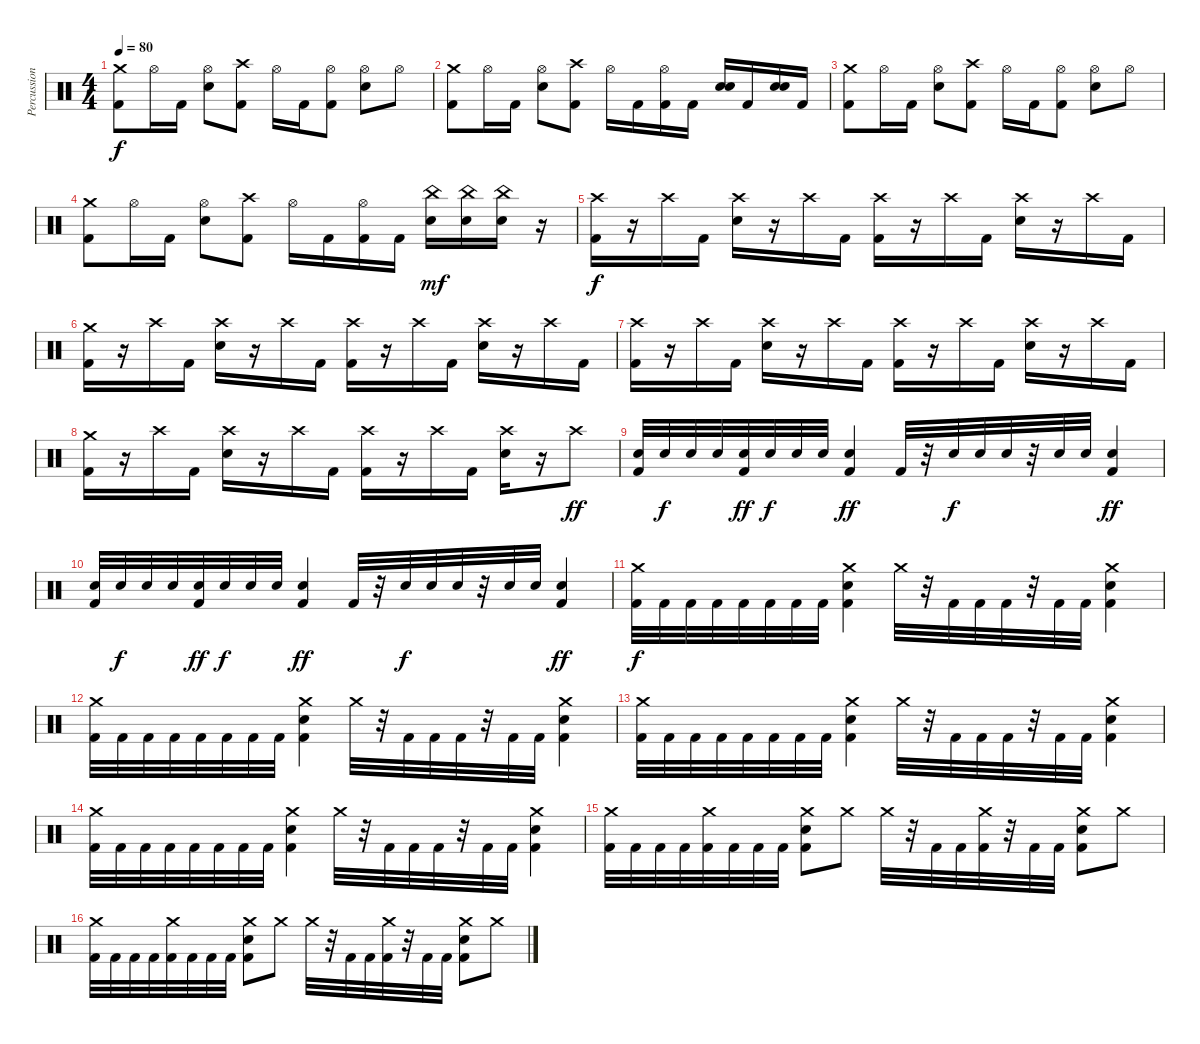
\track ("Percussion" "Percussion") {instrument percussion}
\staff {score}
\articulation defaults
\ts (4 4)
\tempo 80
\clef neutral
\ks c
("Crash medium (hit)" "Kick (hit) 2").8{dy f} "Hi-Hat (open)".16 "Kick (hit) 2".16 ("Hi-Hat (open)" "Electric Snare (hit)").8 ("Crash high (hit)" "Kick (hit) 2").8 "Hi-Hat (open)".16 "Kick (hit) 2".16 ("Hi-Hat (open)" "Kick (hit) 2").8 ("Hi-Hat (open)" "Electric Snare (hit)").8 "Hi-Hat (open)".8 |
("Crash medium (hit)" "Kick (hit) 2").8 "Hi-Hat (open)".16 "Kick (hit) 2".16 ("Hi-Hat (open)" "Electric Snare (hit)").8 ("Crash high (hit)" "Kick (hit) 2").8 "Hi-Hat (open)".16 "Kick (hit) 2".16 ("Hi-Hat (open)" "Kick (hit) 2").16 "Kick (hit) 2".16 ("Electric Snare (hit)" "Electric Snare (hit)").16 "Kick (hit) 2".16 ("Electric Snare (hit)" "Electric Snare (hit)").16 "Kick (hit) 2".16 |
("Crash medium (hit)" "Kick (hit) 2").8 "Hi-Hat (open)".16 "Kick (hit) 2".16 ("Hi-Hat (open)" "Electric Snare (hit)").8 ("Crash high (hit)" "Kick (hit) 2").8 "Hi-Hat (open)".16 "Kick (hit) 2".16 ("Hi-Hat (open)" "Kick (hit) 2").8 ("Hi-Hat (open)" "Electric Snare (hit)").8 "Hi-Hat (open)".8 |
("Crash medium (hit)" "Kick (hit) 2").8 "Hi-Hat (open)".16 "Kick (hit) 2".16 ("Hi-Hat (open)" "Electric Snare (hit)").8 ("Crash high (hit)" "Kick (hit) 2").8 "Hi-Hat (open)".16 "Kick (hit) 2".16 ("Hi-Hat (open)" "Kick (hit) 2").16 "Kick (hit) 2".16 ("China (hit)" "Electric Snare (hit)").16{dy mf} ("China (hit)" "Electric Snare (hit)").16 ("China (hit)" "Electric Snare (hit)").16 r.16 |
("Crash high (hit)" "Kick (hit) 2").16{dy f} r.16 "Crash high (hit)".16 "Kick (hit) 2".16 ("Crash high (hit)" "Electric Snare (hit)").16 r.16 "Crash high (hit)".16 "Kick (hit) 2".16 ("Crash high (hit)" "Kick (hit) 2").16 r.16 "Crash high (hit)".16 "Kick (hit) 2".16 ("Crash high (hit)" "Electric Snare (hit)").16 r.16 "Crash high (hit)".16 "Kick (hit) 2".16 |
("Crash medium (hit)" "Kick (hit) 2").16 r.16 "Crash high (hit)".16 "Kick (hit) 2".16 ("Crash high (hit)" "Electric Snare (hit)").16 r.16 "Crash high (hit)".16 "Kick (hit) 2".16 ("Crash high (hit)" "Kick (hit) 2").16 r.16 "Crash high (hit)".16 "Kick (hit) 2".16 ("Crash high (hit)" "Electric Snare (hit)").16 r.16 "Crash high (hit)".16 "Kick (hit) 2".16 |
("Crash high (hit)" "Kick (hit) 2").16 r.16 "Crash high (hit)".16 "Kick (hit) 2".16 ("Crash high (hit)" "Electric Snare (hit)").16 r.16 "Crash high (hit)".16 "Kick (hit) 2".16 ("Crash high (hit)" "Kick (hit) 2").16 r.16 "Crash high (hit)".16 "Kick (hit) 2".16 ("Crash high (hit)" "Electric Snare (hit)").16 r.16 "Crash high (hit)".16 "Kick (hit) 2".16 |
("Crash medium (hit)" "Kick (hit) 2").16 r.16 "Crash high (hit)".16 "Kick (hit) 2".16 ("Crash high (hit)" "Electric Snare (hit)").16 r.16 "Crash high (hit)".16 "Kick (hit) 2".16 ("Crash high (hit)" "Kick (hit) 2").16 r.16 "Crash high (hit)".16 "Kick (hit) 2".16 ("Crash high (hit)" "Electric Snare (hit)").16 r.16 "Crash high (hit)".8{dy ff} |
("Electric Snare (hit)" "Kick (hit) 2").32 "Electric Snare (hit)".32{dy f} "Electric Snare (hit)".32 "Electric Snare (hit)".32 ("Electric Snare (hit)" "Kick (hit) 2").32{dy ff} "Electric Snare (hit)".32{dy f} "Electric Snare (hit)".32 "Electric Snare (hit)".32 ("Electric Snare (hit)" "Kick (hit) 2").4{dy ff} "Kick (hit) 2".32 r.32 "Electric Snare (hit)".32{dy f} "Electric Snare (hit)".32 "Electric Snare (hit)".32 r.32 "Electric Snare (hit)".32 "Electric Snare (hit)".32 ("Electric Snare (hit)" "Kick (hit) 2").4{dy ff} |
("Electric Snare (hit)" "Kick (hit) 2").32 "Electric Snare (hit)".32{dy f} "Electric Snare (hit)".32 "Electric Snare (hit)".32 ("Electric Snare (hit)" "Kick (hit) 2").32{dy ff} "Electric Snare (hit)".32{dy f} "Electric Snare (hit)".32 "Electric Snare (hit)".32 ("Electric Snare (hit)" "Kick (hit) 2").4{dy ff} "Kick (hit) 2".32 r.32 "Electric Snare (hit)".32{dy f} "Electric Snare (hit)".32 "Electric Snare (hit)".32 r.32 "Electric Snare (hit)".32 "Electric Snare (hit)".32 ("Electric Snare (hit)" "Kick (hit) 2").4{dy ff} |
("Crash medium (hit)" "Kick (hit) 2").32{dy f} "Kick (hit) 2".32 "Kick (hit) 2".32 "Kick (hit) 2".32 "Kick (hit) 2".32 "Kick (hit) 2".32 "Kick (hit) 2".32 "Kick (hit) 2".32 ("Crash medium (hit)" "Electric Snare (hit)" "Kick (hit) 2").4 "Crash medium (hit)".32 r.32 "Kick (hit) 2".32 "Kick (hit) 2".32 "Kick (hit) 2".32 r.32 "Kick (hit) 2".32 "Kick (hit) 2".32 ("Crash medium (hit)" "Electric Snare (hit)" "Kick (hit) 2").4 |
("Crash medium (hit)" "Kick (hit) 2").32 "Kick (hit) 2".32 "Kick (hit) 2".32 "Kick (hit) 2".32 "Kick (hit) 2".32 "Kick (hit) 2".32 "Kick (hit) 2".32 "Kick (hit) 2".32 ("Crash medium (hit)" "Electric Snare (hit)" "Kick (hit) 2").4 "Crash medium (hit)".32 r.32 "Kick (hit) 2".32 "Kick (hit) 2".32 "Kick (hit) 2".32 r.32 "Kick (hit) 2".32 "Kick (hit) 2".32 ("Crash medium (hit)" "Electric Snare (hit)" "Kick (hit) 2").4 |
("Crash medium (hit)" "Kick (hit) 2").32 "Kick (hit) 2".32 "Kick (hit) 2".32 "Kick (hit) 2".32 "Kick (hit) 2".32 "Kick (hit) 2".32 "Kick (hit) 2".32 "Kick (hit) 2".32 ("Crash medium (hit)" "Electric Snare (hit)" "Kick (hit) 2").4 "Crash medium (hit)".32 r.32 "Kick (hit) 2".32 "Kick (hit) 2".32 "Kick (hit) 2".32 r.32 "Kick (hit) 2".32 "Kick (hit) 2".32 ("Crash medium (hit)" "Electric Snare (hit)" "Kick (hit) 2").4 |
("Crash medium (hit)" "Kick (hit) 2").32 "Kick (hit) 2".32 "Kick (hit) 2".32 "Kick (hit) 2".32 "Kick (hit) 2".32 "Kick (hit) 2".32 "Kick (hit) 2".32 "Kick (hit) 2".32 ("Crash medium (hit)" "Electric Snare (hit)" "Kick (hit) 2").4 "Crash medium (hit)".32 r.32 "Kick (hit) 2".32 "Kick (hit) 2".32 "Kick (hit) 2".32 r.32 "Kick (hit) 2".32 "Kick (hit) 2".32 ("Crash medium (hit)" "Electric Snare (hit)" "Kick (hit) 2").4 |
("Crash medium (hit)" "Kick (hit) 2").32 "Kick (hit) 2".32 "Kick (hit) 2".32 "Kick (hit) 2".32 ("Crash medium (hit)" "Kick (hit) 2").32 "Kick (hit) 2".32 "Kick (hit) 2".32 "Kick (hit) 2".32 ("Crash medium (hit)" "Electric Snare (hit)" "Kick (hit) 2").8 "Crash medium (hit)".8 "Crash medium (hit)".32 r.32 "Kick (hit) 2".32 "Kick (hit) 2".32 ("Crash medium (hit)" "Kick (hit) 2").32 r.32 "Kick (hit) 2".32 "Kick (hit) 2".32 ("Crash medium (hit)" "Electric Snare (hit)" "Kick (hit) 2").8 "Crash medium (hit)".8 |
("Crash medium (hit)" "Kick (hit) 2").32 "Kick (hit) 2".32 "Kick (hit) 2".32 "Kick (hit) 2".32 ("Crash medium (hit)" "Kick (hit) 2").32 "Kick (hit) 2".32 "Kick (hit) 2".32 "Kick (hit) 2".32 ("Crash medium (hit)" "Electric Snare (hit)" "Kick (hit) 2").8 "Crash medium (hit)".8 "Crash medium (hit)".32 r.32 "Kick (hit) 2".32 "Kick (hit) 2".32 ("Crash medium (hit)" "Kick (hit) 2").32 r.32 "Kick (hit) 2".32 "Kick (hit) 2".32 ("Crash medium (hit)" "Electric Snare (hit)" "Kick (hit) 2").8 "Crash medium (hit)".8
